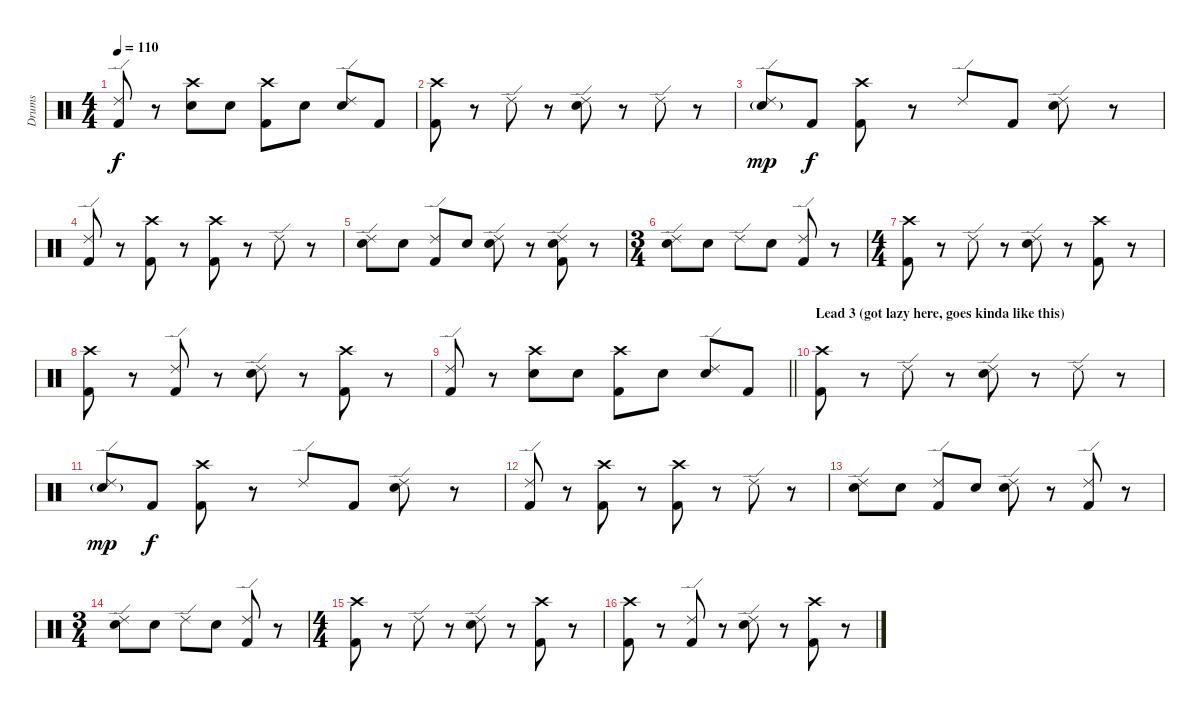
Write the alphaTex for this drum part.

\track ("Drums" "Drums") {instrument percussion}
\staff {score}
\articulation defaults
\ts (4 4)
\tempo 110
\clef neutral
\ks c
("Ride (edge) 2" "Kick (hit) 2").8{dy f} r.8 ("Crash high (hit)" "Snare (hit) 2").8 "Snare (hit) 2".8 ("Crash high (hit)" "Kick (hit) 2").8 "Snare (hit) 2".8 ("Ride (edge) 2" "Snare (hit) 2").8 "Kick (hit) 2".8 |
("Crash high (hit)" "Kick (hit) 2").8 r.8 "Ride (edge) 2".8 r.8 ("Ride (edge) 2" "Snare (hit) 2").8 r.8 "Ride (edge) 2".8 r.8 |
("Ride (edge) 2" "Snare (hit) 2"{g}).8{dy mp} "Kick (hit) 2".8{dy f} ("Crash high (hit)" "Kick (hit) 2").8 r.8 "Ride (edge) 2".8 "Kick (hit) 2".8 ("Ride (edge) 2" "Snare (hit) 2").8 r.8 |
("Ride (edge) 2" "Kick (hit) 2").8 r.8 ("Crash high (hit)" "Kick (hit) 2").8 r.8 ("Crash high (hit)" "Kick (hit) 2").8 r.8 "Ride (edge) 2".8 r.8 |
("Ride (edge) 2" "Snare (hit) 2").8 "Snare (hit) 2".8 ("Ride (edge) 2" "Kick (hit) 2").8 "Snare (hit) 2".8 ("Ride (edge) 2" "Snare (hit) 2").8 r.8 ("Ride (edge) 2" "Snare (hit) 2" "Kick (hit) 2").8 r.8 |
\ts (3 4)
("Ride (edge) 2" "Snare (hit) 2").8 "Snare (hit) 2".8 "Ride (edge) 2".8 "Snare (hit) 2".8 ("Ride (edge) 2" "Kick (hit) 2").8 r.8 |
\ts (4 4)
("Crash high (hit)" "Kick (hit) 2").8 r.8 "Ride (edge) 2".8 r.8 ("Ride (edge) 2" "Snare (hit) 2").8 r.8 ("Crash high (hit)" "Kick (hit) 2").8 r.8 |
("Crash high (hit)" "Kick (hit) 2").8 r.8 ("Ride (edge) 2" "Kick (hit) 2").8 r.8 ("Ride (edge) 2" "Snare (hit) 2").8 r.8 ("Crash high (hit)" "Kick (hit) 2").8 r.8 |
\barLineRight lightlight
("Ride (edge) 2" "Kick (hit) 2").8 r.8 ("Crash high (hit)" "Snare (hit) 2").8 "Snare (hit) 2".8 ("Crash high (hit)" "Kick (hit) 2").8 "Snare (hit) 2".8 ("Ride (edge) 2" "Snare (hit) 2").8 "Kick (hit) 2".8 |
\section ("" "Lead 3 (got lazy here, goes kinda like this)")
("Crash high (hit)" "Kick (hit) 2").8 r.8 "Ride (edge) 2".8 r.8 ("Ride (edge) 2" "Snare (hit) 2").8 r.8 "Ride (edge) 2".8 r.8 |
("Ride (edge) 2" "Snare (hit) 2"{g}).8{dy mp} "Kick (hit) 2".8{dy f} ("Crash high (hit)" "Kick (hit) 2").8 r.8 "Ride (edge) 2".8 "Kick (hit) 2".8 ("Ride (edge) 2" "Snare (hit) 2").8 r.8 |
("Ride (edge) 2" "Kick (hit) 2").8 r.8 ("Crash high (hit)" "Kick (hit) 2").8 r.8 ("Crash high (hit)" "Kick (hit) 2").8 r.8 "Ride (edge) 2".8 r.8 |
("Ride (edge) 2" "Snare (hit) 2").8 "Snare (hit) 2".8 ("Ride (edge) 2" "Kick (hit) 2").8 "Snare (hit) 2".8 ("Ride (edge) 2" "Snare (hit) 2").8 r.8 ("Ride (edge) 2" "Kick (hit) 2").8 r.8 |
\ts (3 4)
("Ride (edge) 2" "Snare (hit) 2").8 "Snare (hit) 2".8 "Ride (edge) 2".8 "Snare (hit) 2".8 ("Ride (edge) 2" "Kick (hit) 2").8 r.8 |
\ts (4 4)
("Crash high (hit)" "Kick (hit) 2").8 r.8 "Ride (edge) 2".8 r.8 ("Ride (edge) 2" "Snare (hit) 2").8 r.8 ("Crash high (hit)" "Kick (hit) 2").8 r.8 |
("Crash high (hit)" "Kick (hit) 2").8 r.8 ("Ride (edge) 2" "Kick (hit) 2").8 r.8 ("Ride (edge) 2" "Snare (hit) 2").8 r.8 ("Crash high (hit)" "Kick (hit) 2").8 r.8
